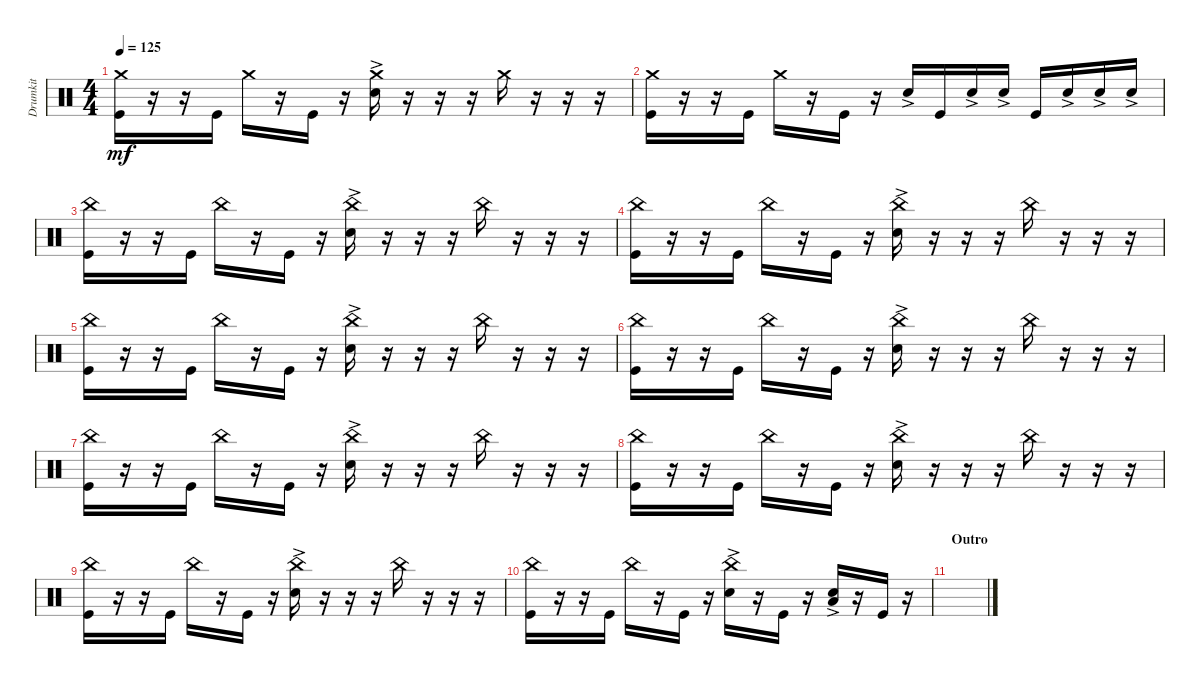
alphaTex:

\track ("Drumkit" "Drumkit") {instrument percussion}
\staff {score}
\articulation defaults
\ts (4 4)
\tempo 125
\clef neutral
\ks c
("Crash medium (hit)" "Kick (hit)").16{dy mf} r.16 r.16 "Kick (hit)".16 "Crash medium (hit)".16 r.16 "Kick (hit)".16 r.16 ("Crash medium (hit)" "Snare (hit) 2"{ac}).16 r.16 r.16 r.16 "Crash medium (hit)".16 r.16 r.16 r.16 |
("Crash medium (hit)" "Kick (hit)").16 r.16 r.16 "Kick (hit)".16 "Crash medium (hit)".16 r.16 "Kick (hit)".16 r.16 "Snare (hit) 2"{ac}.16 "Kick (hit)".16 "Snare (hit) 2"{ac}.16 "Snare (hit) 2"{ac}.16 "Kick (hit)".16 "Snare (hit) 2"{ac}.16 "Snare (hit) 2"{ac}.16 "Snare (hit) 2"{ac}.16 |
("Kick (hit)" "China (hit)").16 r.16 r.16 "Kick (hit)".16 "China (hit)".16 r.16 "Kick (hit)".16 r.16 ("Snare (hit) 2"{ac} "China (hit)").16 r.16 r.16 r.16 "China (hit)".16 r.16 r.16 r.16 |
("Kick (hit)" "China (hit)").16 r.16 r.16 "Kick (hit)".16 "China (hit)".16 r.16 "Kick (hit)".16 r.16 ("Snare (hit) 2"{ac} "China (hit)").16 r.16 r.16 r.16 "China (hit)".16 r.16 r.16 r.16 |
("Kick (hit)" "China (hit)").16 r.16 r.16 "Kick (hit)".16 "China (hit)".16 r.16 "Kick (hit)".16 r.16 ("Snare (hit) 2"{ac} "China (hit)").16 r.16 r.16 r.16 "China (hit)".16 r.16 r.16 r.16 |
("Kick (hit)" "China (hit)").16 r.16 r.16 "Kick (hit)".16 "China (hit)".16 r.16 "Kick (hit)".16 r.16 ("Snare (hit) 2"{ac} "China (hit)").16 r.16 r.16 r.16 "China (hit)".16 r.16 r.16 r.16 |
("Kick (hit)" "China (hit)").16 r.16 r.16 "Kick (hit)".16 "China (hit)".16 r.16 "Kick (hit)".16 r.16 ("Snare (hit) 2"{ac} "China (hit)").16 r.16 r.16 r.16 "China (hit)".16 r.16 r.16 r.16 |
("Kick (hit)" "China (hit)").16 r.16 r.16 "Kick (hit)".16 "China (hit)".16 r.16 "Kick (hit)".16 r.16 ("Snare (hit) 2"{ac} "China (hit)").16 r.16 r.16 r.16 "China (hit)".16 r.16 r.16 r.16 |
("Kick (hit)" "China (hit)").16 r.16 r.16 "Kick (hit)".16 "China (hit)".16 r.16 "Kick (hit)".16 r.16 ("Snare (hit) 2"{ac} "China (hit)").16 r.16 r.16 r.16 "China (hit)".16 r.16 r.16 r.16 |
("Kick (hit)" "China (hit)").16 r.16 r.16 "Kick (hit)".16 "China (hit)".16 r.16 "Kick (hit)".16 r.16 ("Snare (hit) 2"{ac} "China (hit)").16 r.16 "Kick (hit)".16 r.16 ("Snare (hit) 2"{ac} "Low Floor Tom (hit)").16 r.16 "Kick (hit)".16 r.16 |
\section ("" "Outro")
